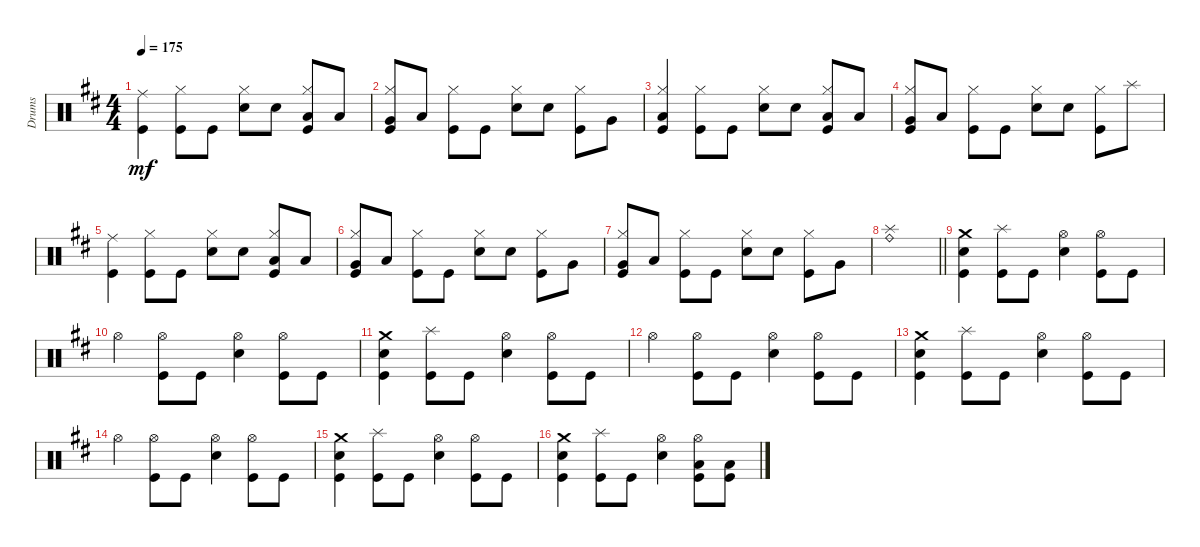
\track ("Drums" "Drums") {instrument percussion}
\staff {score}
\articulation defaults
\ts (4 4)
\tempo 175
\clef neutral
\ks d
("Ride (middle)" "Kick (hit)").4{dy mf} ("Kick (hit)" "Hi-Hat (closed)").8 "Kick (hit)".8 ("Snare (hit) 2" "Hi-Hat (closed)").8 "Snare (hit) 2".8 ("Hi-Hat (closed)" "Low Floor Tom (hit)" "Kick (hit)").8 "Low Floor Tom (hit)".8 |
("Hi-Hat (closed)" "Kick (hit)" "Very Low Tom (hit)").8 "Low Floor Tom (hit)".8 ("Kick (hit)" "Hi-Hat (closed)").8 "Kick (hit)".8 ("Hi-Hat (closed)" "Snare (hit) 2").8 "Snare (hit) 2".8 ("Hi-Hat (closed)" "Kick (hit)").8 "Very Low Tom (hit)".8 |
("Kick (hit)" "Hi-Hat (closed)" "Low Floor Tom (hit)").4 ("Kick (hit)" "Hi-Hat (closed)").8 "Kick (hit)".8 ("Snare (hit) 2" "Hi-Hat (closed)").8 "Snare (hit) 2".8 ("Hi-Hat (closed)" "Kick (hit)" "Low Floor Tom (hit)").8 "Low Floor Tom (hit)".8 |
("Hi-Hat (closed)" "Kick (hit)" "Very Low Tom (hit)").8 "Low Floor Tom (hit)".8 ("Kick (hit)" "Hi-Hat (closed)").8 "Kick (hit)".8 ("Hi-Hat (closed)" "Snare (hit) 2").8 "Snare (hit) 2".8 ("Hi-Hat (closed)" "Kick (hit)").8 "Splash (hit)".8 |
("Ride (middle)" "Kick (hit)").4 ("Kick (hit)" "Hi-Hat (closed)").8 "Kick (hit)".8 ("Snare (hit) 2" "Hi-Hat (closed)").8 "Snare (hit) 2".8 ("Hi-Hat (closed)" "Low Floor Tom (hit)" "Kick (hit)").8 "Low Floor Tom (hit)".8 |
("Hi-Hat (closed)" "Kick (hit)" "Very Low Tom (hit)").8 "Low Floor Tom (hit)".8 ("Kick (hit)" "Hi-Hat (closed)").8 "Kick (hit)".8 ("Hi-Hat (closed)" "Snare (hit) 2").8 "Snare (hit) 2".8 ("Hi-Hat (closed)" "Kick (hit)").8 "Very Low Tom (hit)".8 |
("Hi-Hat (closed)" "Kick (hit)" "Very Low Tom (hit)").8 "Low Floor Tom (hit)".8 ("Kick (hit)" "Hi-Hat (closed)").8 "Kick (hit)".8 ("Hi-Hat (closed)" "Snare (hit) 2").8 "Snare (hit) 2".8 ("Hi-Hat (closed)" "Kick (hit)").8 "Very Low Tom (hit)".8 |
\barLineRight lightlight
("Splash (hit)" "Ride (bell)").1 |
("Crash medium (hit)" "Kick (hit)" "Snare (hit) 2").4 ("Splash (hit)" "Kick (hit)").8 "Kick (hit)".8 ("Snare (hit) 2" "Hi-Hat (open)").4 ("Hi-Hat (open)" "Kick (hit)").8 "Kick (hit)".8 |
"Hi-Hat (open)".4 ("Kick (hit)" "Hi-Hat (open)").8 "Kick (hit)".8 ("Hi-Hat (open)" "Snare (hit) 2").4 ("Kick (hit)" "Hi-Hat (open)").8 "Kick (hit)".8 |
("Crash medium (hit)" "Kick (hit)" "Snare (hit) 2").4 ("Splash (hit)" "Kick (hit)").8 "Kick (hit)".8 ("Snare (hit) 2" "Hi-Hat (open)").4 ("Hi-Hat (open)" "Kick (hit)").8 "Kick (hit)".8 |
"Hi-Hat (open)".4 ("Kick (hit)" "Hi-Hat (open)").8 "Kick (hit)".8 ("Hi-Hat (open)" "Snare (hit) 2").4 ("Kick (hit)" "Hi-Hat (open)").8 "Kick (hit)".8 |
("Crash medium (hit)" "Kick (hit)" "Snare (hit) 2").4 ("Splash (hit)" "Kick (hit)").8 "Kick (hit)".8 ("Snare (hit) 2" "Hi-Hat (open)").4 ("Hi-Hat (open)" "Kick (hit)").8 "Kick (hit)".8 |
"Hi-Hat (open)".4 ("Kick (hit)" "Hi-Hat (open)").8 "Kick (hit)".8 ("Hi-Hat (open)" "Snare (hit) 2").4 ("Kick (hit)" "Hi-Hat (open)").8 "Kick (hit)".8 |
("Crash medium (hit)" "Kick (hit)" "Snare (hit) 2").4 ("Splash (hit)" "Kick (hit)").8 "Kick (hit)".8 ("Snare (hit) 2" "Hi-Hat (open)").4 ("Hi-Hat (open)" "Kick (hit)").8 "Kick (hit)".8 |
("Crash medium (hit)" "Kick (hit)" "Snare (hit) 2").4 ("Splash (hit)" "Kick (hit)").8 "Kick (hit)".8 ("Snare (hit) 2" "Hi-Hat (open)").4 ("Hi-Hat (open)" "Kick (hit)" "Low Floor Tom (hit)").8 ("Kick (hit)" "Low Floor Tom (hit)").8
